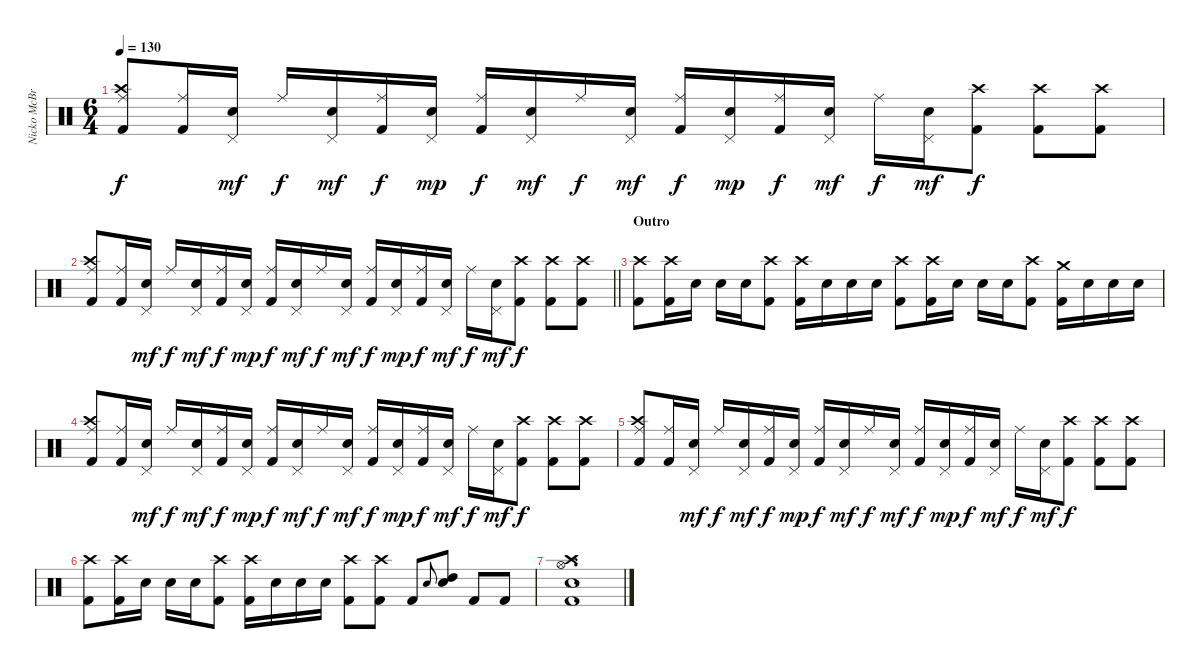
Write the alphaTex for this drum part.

\track ("Nicko McBrain" "Nicko McBr") {instrument percussion}
\staff {score}
\articulation defaults
\ts (6 4)
\tempo 130
\clef neutral
\ks c
("Ride (middle)" "Crash high (hit)" "Kick (hit) 2").8{dy f} ("Ride (middle)" "Kick (hit) 2").16 ("Pedal Hi-Hat (hit)" "Snare (hit) 2").16{dy mf} "Ride (middle)".16{dy f} ("Pedal Hi-Hat (hit)" "Snare (hit) 2").16{dy mf} ("Ride (middle)" "Kick (hit) 2").16{dy f} ("Pedal Hi-Hat (hit)" "Snare (hit) 2").16{dy mp} ("Ride (middle)" "Kick (hit) 2").16{dy f} ("Pedal Hi-Hat (hit)" "Snare (hit) 2").16{dy mf} "Ride (middle)".16{dy f} ("Pedal Hi-Hat (hit)" "Snare (hit) 2").16{dy mf} ("Ride (middle)" "Kick (hit) 2").16{dy f} ("Pedal Hi-Hat (hit)" "Snare (hit) 2").16{dy mp} ("Ride (middle)" "Kick (hit) 2").16{dy f} ("Pedal Hi-Hat (hit)" "Snare (hit) 2").16{dy mf} "Ride (middle)".16{dy f} ("Pedal Hi-Hat (hit)" "Snare (hit) 2").16{dy mf} ("Crash high (hit)" "Kick (hit) 2").8{dy f} ("Crash high (hit)" "Kick (hit) 2").8 ("Crash high (hit)" "Kick (hit) 2").8 |
\barLineRight lightlight
("Ride (middle)" "Crash high (hit)" "Kick (hit) 2").8 ("Ride (middle)" "Kick (hit) 2").16 ("Pedal Hi-Hat (hit)" "Snare (hit) 2").16{dy mf} "Ride (middle)".16{dy f} ("Pedal Hi-Hat (hit)" "Snare (hit) 2").16{dy mf} ("Ride (middle)" "Kick (hit) 2").16{dy f} ("Pedal Hi-Hat (hit)" "Snare (hit) 2").16{dy mp} ("Ride (middle)" "Kick (hit) 2").16{dy f} ("Pedal Hi-Hat (hit)" "Snare (hit) 2").16{dy mf} "Ride (middle)".16{dy f} ("Pedal Hi-Hat (hit)" "Snare (hit) 2").16{dy mf} ("Ride (middle)" "Kick (hit) 2").16{dy f} ("Pedal Hi-Hat (hit)" "Snare (hit) 2").16{dy mp} ("Ride (middle)" "Kick (hit) 2").16{dy f} ("Pedal Hi-Hat (hit)" "Snare (hit) 2").16{dy mf} "Ride (middle)".16{dy f} ("Pedal Hi-Hat (hit)" "Snare (hit) 2").16{dy mf} ("Crash high (hit)" "Kick (hit) 2").8{dy f} ("Crash high (hit)" "Kick (hit) 2").8 ("Crash high (hit)" "Kick (hit) 2").8 |
\section ("" "Outro")
("Crash high (hit)" "Kick (hit) 2").8 ("Crash high (hit)" "Kick (hit) 2").16 "Snare (hit) 2".16 "Snare (hit) 2".16 "Snare (hit) 2".16 ("Crash high (hit)" "Kick (hit) 2").8 ("Crash high (hit)" "Kick (hit) 2").16 "Snare (hit) 2".16 "Snare (hit) 2".16 "Snare (hit) 2".16 ("Crash high (hit)" "Kick (hit) 2").8 ("Crash high (hit)" "Kick (hit) 2").16 "Snare (hit) 2".16 "Snare (hit) 2".16 "Snare (hit) 2".16 ("Crash high (hit)" "Kick (hit) 2").8 ("Crash medium (hit)" "Kick (hit) 2").16 "Snare (hit) 2".16 "Snare (hit) 2".16 "Snare (hit) 2".16 |
("Ride (middle)" "Crash high (hit)" "Kick (hit) 2").8 ("Ride (middle)" "Kick (hit) 2").16 ("Pedal Hi-Hat (hit)" "Snare (hit) 2").16{dy mf} "Ride (middle)".16{dy f} ("Pedal Hi-Hat (hit)" "Snare (hit) 2").16{dy mf} ("Ride (middle)" "Kick (hit) 2").16{dy f} ("Pedal Hi-Hat (hit)" "Snare (hit) 2").16{dy mp} ("Ride (middle)" "Kick (hit) 2").16{dy f} ("Pedal Hi-Hat (hit)" "Snare (hit) 2").16{dy mf} "Ride (middle)".16{dy f} ("Pedal Hi-Hat (hit)" "Snare (hit) 2").16{dy mf} ("Ride (middle)" "Kick (hit) 2").16{dy f} ("Pedal Hi-Hat (hit)" "Snare (hit) 2").16{dy mp} ("Ride (middle)" "Kick (hit) 2").16{dy f} ("Pedal Hi-Hat (hit)" "Snare (hit) 2").16{dy mf} "Ride (middle)".16{dy f} ("Pedal Hi-Hat (hit)" "Snare (hit) 2").16{dy mf} ("Crash high (hit)" "Kick (hit) 2").8{dy f} ("Crash high (hit)" "Kick (hit) 2").8 ("Crash high (hit)" "Kick (hit) 2").8 |
("Ride (middle)" "Crash high (hit)" "Kick (hit) 2").8 ("Ride (middle)" "Kick (hit) 2").16 ("Pedal Hi-Hat (hit)" "Snare (hit) 2").16{dy mf} "Ride (middle)".16{dy f} ("Pedal Hi-Hat (hit)" "Snare (hit) 2").16{dy mf} ("Ride (middle)" "Kick (hit) 2").16{dy f} ("Pedal Hi-Hat (hit)" "Snare (hit) 2").16{dy mp} ("Ride (middle)" "Kick (hit) 2").16{dy f} ("Pedal Hi-Hat (hit)" "Snare (hit) 2").16{dy mf} "Ride (middle)".16{dy f} ("Pedal Hi-Hat (hit)" "Snare (hit) 2").16{dy mf} ("Ride (middle)" "Kick (hit) 2").16{dy f} ("Pedal Hi-Hat (hit)" "Snare (hit) 2").16{dy mp} ("Ride (middle)" "Kick (hit) 2").16{dy f} ("Pedal Hi-Hat (hit)" "Snare (hit) 2").16{dy mf} "Ride (middle)".16{dy f} ("Pedal Hi-Hat (hit)" "Snare (hit) 2").16{dy mf} ("Crash high (hit)" "Kick (hit) 2").8{dy f} ("Crash high (hit)" "Kick (hit) 2").8 ("Crash high (hit)" "Kick (hit) 2").8 |
("Crash high (hit)" "Kick (hit) 2").8 ("Crash high (hit)" "Kick (hit) 2").16 "Snare (hit) 2".16 "Snare (hit) 2".16 "Snare (hit) 2".16 ("Crash high (hit)" "Kick (hit) 2").8 ("Crash high (hit)" "Kick (hit) 2").16 "Snare (hit) 2".16 "Snare (hit) 2".16 "Snare (hit) 2".16 ("Crash high (hit)" "Kick (hit) 2").8 ("Crash high (hit)" "Kick (hit) 2").8 "Kick (hit) 2".8 "Snare (hit) 2".8{gr onbeat} ("Snare (hit) 2" "High Tom (hit)").8 "Kick (hit) 2".8 "Kick (hit) 2".8 |
("Hi-Hat (open)" "Snare (hit) 2" "Crash high (hit)" "Kick (hit) 2").1{d}
